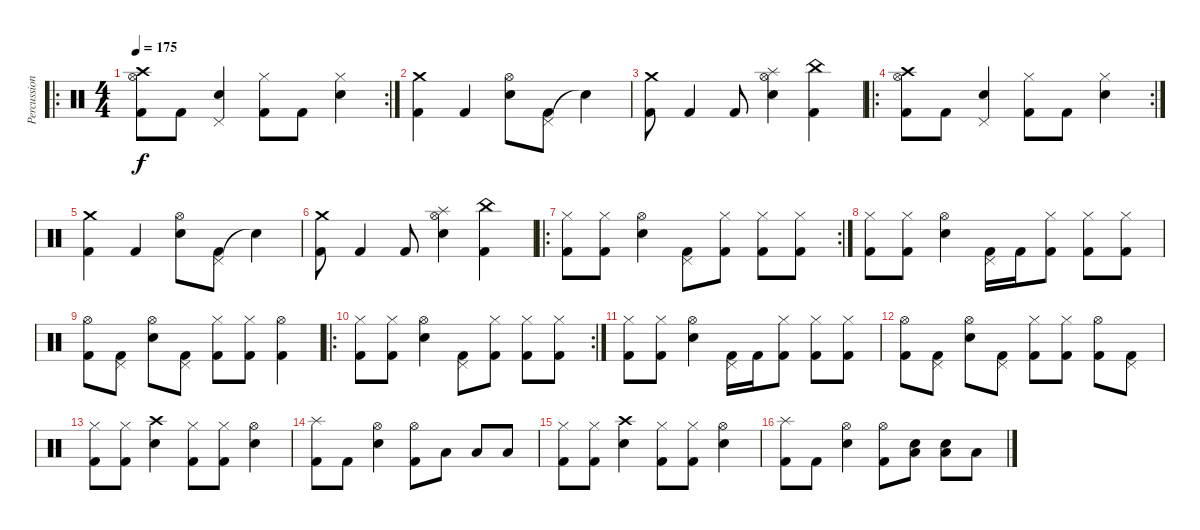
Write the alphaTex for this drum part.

\track ("Percussion" "Percussion") {instrument percussion}
\staff {score}
\articulation defaults
\ro
\rc 2
\ts (4 4)
\tempo 175
\clef neutral
\ks c
("Crash high (hit)" "Hi-Hat (open)" "Kick (hit) 2").8{dy f} "Kick (hit) 2".8 ("Pedal Hi-Hat (hit)" "Snare (hit) 2").4 ("Hi-Hat (closed)" "Kick (hit) 2").8 "Kick (hit) 2".8 ("Hi-Hat (closed)" "Snare (hit) 2").4 |
("Crash medium (hit)" "Kick (hit) 2").4 "Kick (hit) 2".4 ("Hi-Hat (open)" "Snare (hit) 2").8 ("Pedal Hi-Hat (hit)" "Kick (hit) 2").8 "Snare (hit)"{t}.4 |
("Crash medium (hit)" "Kick (hit) 2").8 "Kick (hit) 2".4 "Kick (hit) 2".8 ("Splash (hit)" "Hi-Hat (open)" "Snare (hit) 2").4 ("China (hit)" "Kick (hit) 2").4 |
\ro
\rc 2
("Crash high (hit)" "Hi-Hat (open)" "Kick (hit) 2").8 "Kick (hit) 2".8 ("Pedal Hi-Hat (hit)" "Snare (hit) 2").4 ("Hi-Hat (closed)" "Kick (hit) 2").8 "Kick (hit) 2".8 ("Hi-Hat (closed)" "Snare (hit) 2").4 |
("Crash medium (hit)" "Kick (hit) 2").4 "Kick (hit) 2".4 ("Hi-Hat (open)" "Snare (hit) 2").8 ("Pedal Hi-Hat (hit)" "Kick (hit) 2").8 "Snare (hit)"{t}.4 |
("Crash medium (hit)" "Kick (hit) 2").8 "Kick (hit) 2".4 "Kick (hit) 2".8 ("Splash (hit)" "Hi-Hat (open)" "Snare (hit) 2").4 ("China (hit)" "Kick (hit) 2").4 |
\ro
\rc 2
("Hi-Hat (closed)" "Kick (hit) 2").8 ("Hi-Hat (closed)" "Kick (hit) 2").8 ("Hi-Hat (open)" "Snare (hit) 2").4 ("Pedal Hi-Hat (hit)" "Kick (hit) 2").8 ("Hi-Hat (closed)" "Kick (hit) 2").8 ("Hi-Hat (closed)" "Kick (hit) 2").8 ("Hi-Hat (closed)" "Kick (hit) 2").8 |
("Hi-Hat (closed)" "Kick (hit) 2").8 ("Hi-Hat (closed)" "Kick (hit) 2").8 ("Hi-Hat (open)" "Snare (hit) 2").4 ("Pedal Hi-Hat (hit)" "Kick (hit) 2").16 "Kick (hit) 2".16 ("Hi-Hat (closed)" "Kick (hit) 2").8 ("Hi-Hat (closed)" "Kick (hit) 2").8 ("Hi-Hat (closed)" "Kick (hit) 2").8 |
("Hi-Hat (open)" "Kick (hit) 2").8 ("Pedal Hi-Hat (hit)" "Kick (hit) 2").8 ("Hi-Hat (open)" "Snare (hit) 2").8 ("Pedal Hi-Hat (hit)" "Kick (hit) 2").8 ("Hi-Hat (closed)" "Kick (hit) 2").8 ("Hi-Hat (closed)" "Kick (hit) 2").8 ("Hi-Hat (open)" "Kick (hit) 2").4 |
\ro
\rc 2
("Hi-Hat (closed)" "Kick (hit) 2").8 ("Hi-Hat (closed)" "Kick (hit) 2").8 ("Hi-Hat (open)" "Snare (hit) 2").4 ("Pedal Hi-Hat (hit)" "Kick (hit) 2").8 ("Hi-Hat (closed)" "Kick (hit) 2").8 ("Hi-Hat (closed)" "Kick (hit) 2").8 ("Hi-Hat (closed)" "Kick (hit) 2").8 |
("Hi-Hat (closed)" "Kick (hit) 2").8 ("Hi-Hat (closed)" "Kick (hit) 2").8 ("Hi-Hat (open)" "Snare (hit) 2").4 ("Pedal Hi-Hat (hit)" "Kick (hit) 2").16 "Kick (hit) 2".16 ("Hi-Hat (closed)" "Kick (hit) 2").8 ("Hi-Hat (closed)" "Kick (hit) 2").8 ("Hi-Hat (closed)" "Kick (hit) 2").8 |
("Hi-Hat (open)" "Kick (hit) 2").8 ("Pedal Hi-Hat (hit)" "Kick (hit) 2").8 ("Hi-Hat (open)" "Snare (hit) 2").8 ("Pedal Hi-Hat (hit)" "Kick (hit) 2").8 ("Hi-Hat (closed)" "Kick (hit) 2").8 ("Hi-Hat (closed)" "Kick (hit) 2").8 ("Hi-Hat (open)" "Kick (hit) 2").8 ("Pedal Hi-Hat (hit)" "Kick (hit) 2").8 |
("Hi-Hat (closed)" "Kick (hit) 2").8 ("Hi-Hat (closed)" "Kick (hit) 2").8 ("Crash high (hit)" "Snare (hit) 2").4 ("Hi-Hat (closed)" "Kick (hit) 2").8 ("Hi-Hat (closed)" "Kick (hit) 2").8 ("Hi-Hat (open)" "Snare (hit) 2").4 |
("Splash (hit)" "Kick (hit) 2").8 "Kick (hit) 2".8 ("Hi-Hat (open)" "Snare (hit) 2").4 ("Hi-Hat (open)" "Kick (hit) 2").8 "Low Tom (hit)".8 "Low Tom (hit)".8 "Low Tom (hit)".8 |
("Hi-Hat (closed)" "Kick (hit) 2").8 ("Hi-Hat (closed)" "Kick (hit) 2").8 ("Crash high (hit)" "Snare (hit) 2").4 ("Hi-Hat (closed)" "Kick (hit) 2").8 ("Hi-Hat (closed)" "Kick (hit) 2").8 ("Hi-Hat (open)" "Snare (hit) 2").4 |
("Splash (hit)" "Kick (hit) 2").8 "Kick (hit) 2".8 ("Hi-Hat (open)" "Snare (hit) 2").4 ("Hi-Hat (open)" "Kick (hit) 2").8 ("Low Tom (hit)" "Snare (hit) 2").8 ("Low Tom (hit)" "Snare (hit) 2").8 "Low Tom (hit)".8
